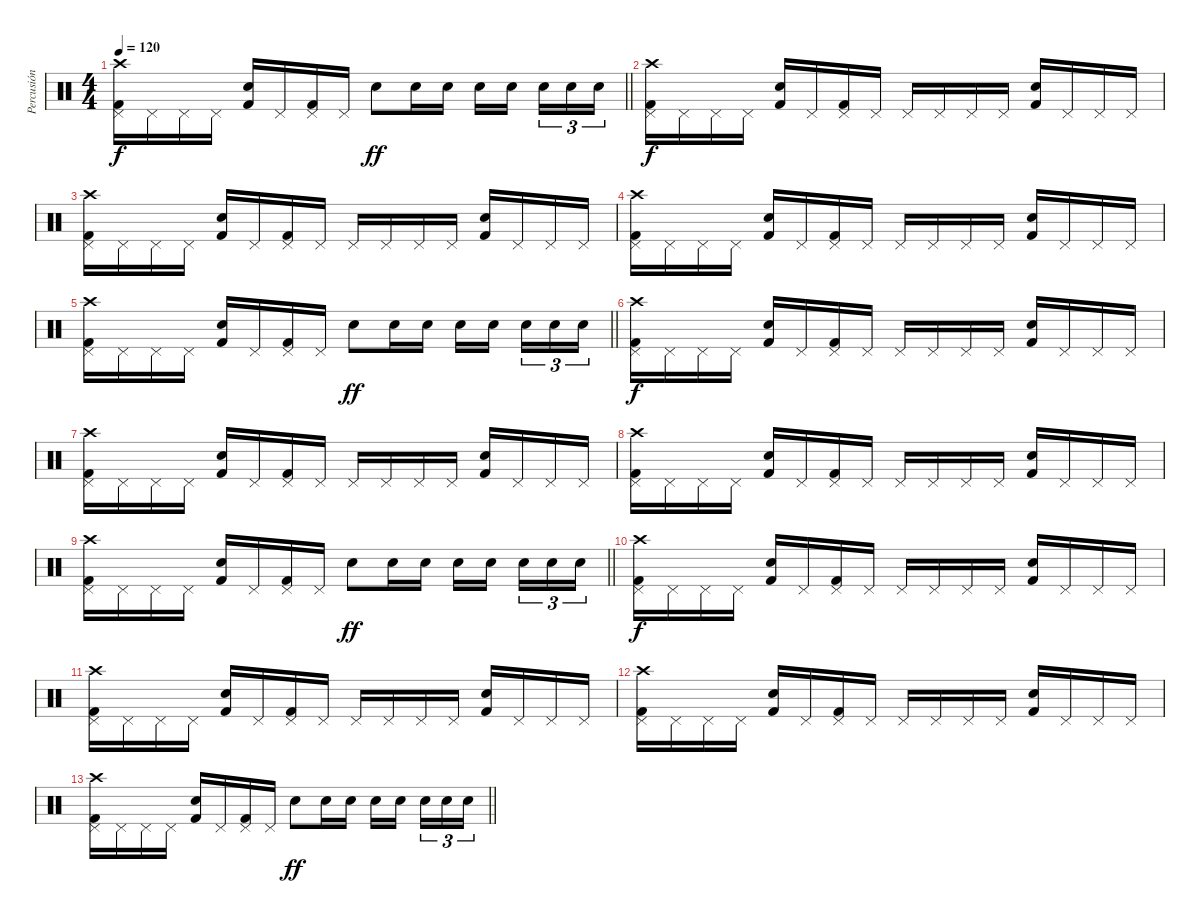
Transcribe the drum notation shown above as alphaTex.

\track ("Percusión" "Percusión") {instrument percussion}
\staff {score}
\articulation defaults
\ts (4 4)
\tempo 120
\clef neutral
\barLineRight lightlight
\ks c
("Pedal Hi-Hat (hit)" "Kick (hit) 2" "Crash high (hit)").16{dy f} "Pedal Hi-Hat (hit)".16 "Pedal Hi-Hat (hit)".16 "Pedal Hi-Hat (hit)".16 ("Snare (hit) 2" "Kick (hit) 2").16 "Pedal Hi-Hat (hit)".16 ("Pedal Hi-Hat (hit)" "Kick (hit) 2").16 "Pedal Hi-Hat (hit)".16 "Snare (hit) 2".8{dy ff} "Snare (hit) 2".16 "Snare (hit) 2".16 "Snare (hit) 2".16 "Snare (hit) 2".16{beam splitsecondary} "Snare (hit) 2".16{tu (3 2)} "Snare (hit) 2".16{tu (3 2)} "Snare (hit) 2".16{tu (3 2)} |
("Pedal Hi-Hat (hit)" "Kick (hit) 2" "Crash high (hit)").16{dy f} "Pedal Hi-Hat (hit)".16 "Pedal Hi-Hat (hit)".16 "Pedal Hi-Hat (hit)".16 ("Snare (hit) 2" "Kick (hit) 2").16 "Pedal Hi-Hat (hit)".16 ("Pedal Hi-Hat (hit)" "Kick (hit) 2").16 "Pedal Hi-Hat (hit)".16 "Pedal Hi-Hat (hit)".16 "Pedal Hi-Hat (hit)".16 "Pedal Hi-Hat (hit)".16 "Pedal Hi-Hat (hit)".16 ("Snare (hit) 2" "Kick (hit) 2").16 "Pedal Hi-Hat (hit)".16 "Pedal Hi-Hat (hit)".16 "Pedal Hi-Hat (hit)".16 |
("Pedal Hi-Hat (hit)" "Kick (hit) 2" "Crash high (hit)").16 "Pedal Hi-Hat (hit)".16 "Pedal Hi-Hat (hit)".16 "Pedal Hi-Hat (hit)".16 ("Snare (hit) 2" "Kick (hit) 2").16 "Pedal Hi-Hat (hit)".16 ("Pedal Hi-Hat (hit)" "Kick (hit) 2").16 "Pedal Hi-Hat (hit)".16 "Pedal Hi-Hat (hit)".16 "Pedal Hi-Hat (hit)".16 "Pedal Hi-Hat (hit)".16 "Pedal Hi-Hat (hit)".16 ("Snare (hit) 2" "Kick (hit) 2").16 "Pedal Hi-Hat (hit)".16 "Pedal Hi-Hat (hit)".16 "Pedal Hi-Hat (hit)".16 |
("Pedal Hi-Hat (hit)" "Kick (hit) 2" "Crash high (hit)").16 "Pedal Hi-Hat (hit)".16 "Pedal Hi-Hat (hit)".16 "Pedal Hi-Hat (hit)".16 ("Snare (hit) 2" "Kick (hit) 2").16 "Pedal Hi-Hat (hit)".16 ("Pedal Hi-Hat (hit)" "Kick (hit) 2").16 "Pedal Hi-Hat (hit)".16 "Pedal Hi-Hat (hit)".16 "Pedal Hi-Hat (hit)".16 "Pedal Hi-Hat (hit)".16 "Pedal Hi-Hat (hit)".16 ("Snare (hit) 2" "Kick (hit) 2").16 "Pedal Hi-Hat (hit)".16 "Pedal Hi-Hat (hit)".16 "Pedal Hi-Hat (hit)".16 |
\barLineRight lightlight
("Pedal Hi-Hat (hit)" "Kick (hit) 2" "Crash high (hit)").16 "Pedal Hi-Hat (hit)".16 "Pedal Hi-Hat (hit)".16 "Pedal Hi-Hat (hit)".16 ("Snare (hit) 2" "Kick (hit) 2").16 "Pedal Hi-Hat (hit)".16 ("Pedal Hi-Hat (hit)" "Kick (hit) 2").16 "Pedal Hi-Hat (hit)".16 "Snare (hit) 2".8{dy ff} "Snare (hit) 2".16 "Snare (hit) 2".16 "Snare (hit) 2".16 "Snare (hit) 2".16{beam splitsecondary} "Snare (hit) 2".16{tu (3 2)} "Snare (hit) 2".16{tu (3 2)} "Snare (hit) 2".16{tu (3 2)} |
("Pedal Hi-Hat (hit)" "Kick (hit) 2" "Crash high (hit)").16{dy f} "Pedal Hi-Hat (hit)".16 "Pedal Hi-Hat (hit)".16 "Pedal Hi-Hat (hit)".16 ("Snare (hit) 2" "Kick (hit) 2").16 "Pedal Hi-Hat (hit)".16 ("Pedal Hi-Hat (hit)" "Kick (hit) 2").16 "Pedal Hi-Hat (hit)".16 "Pedal Hi-Hat (hit)".16 "Pedal Hi-Hat (hit)".16 "Pedal Hi-Hat (hit)".16 "Pedal Hi-Hat (hit)".16 ("Snare (hit) 2" "Kick (hit) 2").16 "Pedal Hi-Hat (hit)".16 "Pedal Hi-Hat (hit)".16 "Pedal Hi-Hat (hit)".16 |
("Pedal Hi-Hat (hit)" "Kick (hit) 2" "Crash high (hit)").16 "Pedal Hi-Hat (hit)".16 "Pedal Hi-Hat (hit)".16 "Pedal Hi-Hat (hit)".16 ("Snare (hit) 2" "Kick (hit) 2").16 "Pedal Hi-Hat (hit)".16 ("Pedal Hi-Hat (hit)" "Kick (hit) 2").16 "Pedal Hi-Hat (hit)".16 "Pedal Hi-Hat (hit)".16 "Pedal Hi-Hat (hit)".16 "Pedal Hi-Hat (hit)".16 "Pedal Hi-Hat (hit)".16 ("Snare (hit) 2" "Kick (hit) 2").16 "Pedal Hi-Hat (hit)".16 "Pedal Hi-Hat (hit)".16 "Pedal Hi-Hat (hit)".16 |
("Pedal Hi-Hat (hit)" "Kick (hit) 2" "Crash high (hit)").16 "Pedal Hi-Hat (hit)".16 "Pedal Hi-Hat (hit)".16 "Pedal Hi-Hat (hit)".16 ("Snare (hit) 2" "Kick (hit) 2").16 "Pedal Hi-Hat (hit)".16 ("Pedal Hi-Hat (hit)" "Kick (hit) 2").16 "Pedal Hi-Hat (hit)".16 "Pedal Hi-Hat (hit)".16 "Pedal Hi-Hat (hit)".16 "Pedal Hi-Hat (hit)".16 "Pedal Hi-Hat (hit)".16 ("Snare (hit) 2" "Kick (hit) 2").16 "Pedal Hi-Hat (hit)".16 "Pedal Hi-Hat (hit)".16 "Pedal Hi-Hat (hit)".16 |
\barLineRight lightlight
("Pedal Hi-Hat (hit)" "Kick (hit) 2" "Crash high (hit)").16 "Pedal Hi-Hat (hit)".16 "Pedal Hi-Hat (hit)".16 "Pedal Hi-Hat (hit)".16 ("Snare (hit) 2" "Kick (hit) 2").16 "Pedal Hi-Hat (hit)".16 ("Pedal Hi-Hat (hit)" "Kick (hit) 2").16 "Pedal Hi-Hat (hit)".16 "Snare (hit) 2".8{dy ff} "Snare (hit) 2".16 "Snare (hit) 2".16 "Snare (hit) 2".16 "Snare (hit) 2".16{beam splitsecondary} "Snare (hit) 2".16{tu (3 2)} "Snare (hit) 2".16{tu (3 2)} "Snare (hit) 2".16{tu (3 2)} |
("Pedal Hi-Hat (hit)" "Kick (hit) 2" "Crash high (hit)").16{dy f} "Pedal Hi-Hat (hit)".16 "Pedal Hi-Hat (hit)".16 "Pedal Hi-Hat (hit)".16 ("Snare (hit) 2" "Kick (hit) 2").16 "Pedal Hi-Hat (hit)".16 ("Pedal Hi-Hat (hit)" "Kick (hit) 2").16 "Pedal Hi-Hat (hit)".16 "Pedal Hi-Hat (hit)".16 "Pedal Hi-Hat (hit)".16 "Pedal Hi-Hat (hit)".16 "Pedal Hi-Hat (hit)".16 ("Snare (hit) 2" "Kick (hit) 2").16 "Pedal Hi-Hat (hit)".16 "Pedal Hi-Hat (hit)".16 "Pedal Hi-Hat (hit)".16 |
("Pedal Hi-Hat (hit)" "Kick (hit) 2" "Crash high (hit)").16 "Pedal Hi-Hat (hit)".16 "Pedal Hi-Hat (hit)".16 "Pedal Hi-Hat (hit)".16 ("Snare (hit) 2" "Kick (hit) 2").16 "Pedal Hi-Hat (hit)".16 ("Pedal Hi-Hat (hit)" "Kick (hit) 2").16 "Pedal Hi-Hat (hit)".16 "Pedal Hi-Hat (hit)".16 "Pedal Hi-Hat (hit)".16 "Pedal Hi-Hat (hit)".16 "Pedal Hi-Hat (hit)".16 ("Snare (hit) 2" "Kick (hit) 2").16 "Pedal Hi-Hat (hit)".16 "Pedal Hi-Hat (hit)".16 "Pedal Hi-Hat (hit)".16 |
("Pedal Hi-Hat (hit)" "Kick (hit) 2" "Crash high (hit)").16 "Pedal Hi-Hat (hit)".16 "Pedal Hi-Hat (hit)".16 "Pedal Hi-Hat (hit)".16 ("Snare (hit) 2" "Kick (hit) 2").16 "Pedal Hi-Hat (hit)".16 ("Pedal Hi-Hat (hit)" "Kick (hit) 2").16 "Pedal Hi-Hat (hit)".16 "Pedal Hi-Hat (hit)".16 "Pedal Hi-Hat (hit)".16 "Pedal Hi-Hat (hit)".16 "Pedal Hi-Hat (hit)".16 ("Snare (hit) 2" "Kick (hit) 2").16 "Pedal Hi-Hat (hit)".16 "Pedal Hi-Hat (hit)".16 "Pedal Hi-Hat (hit)".16 |
\barLineRight lightlight
("Pedal Hi-Hat (hit)" "Kick (hit) 2" "Crash high (hit)").16 "Pedal Hi-Hat (hit)".16 "Pedal Hi-Hat (hit)".16 "Pedal Hi-Hat (hit)".16 ("Snare (hit) 2" "Kick (hit) 2").16 "Pedal Hi-Hat (hit)".16 ("Pedal Hi-Hat (hit)" "Kick (hit) 2").16 "Pedal Hi-Hat (hit)".16 "Snare (hit) 2".8{dy ff} "Snare (hit) 2".16 "Snare (hit) 2".16 "Snare (hit) 2".16 "Snare (hit) 2".16{beam splitsecondary} "Snare (hit) 2".16{tu (3 2)} "Snare (hit) 2".16{tu (3 2)} "Snare (hit) 2".16{tu (3 2)}
